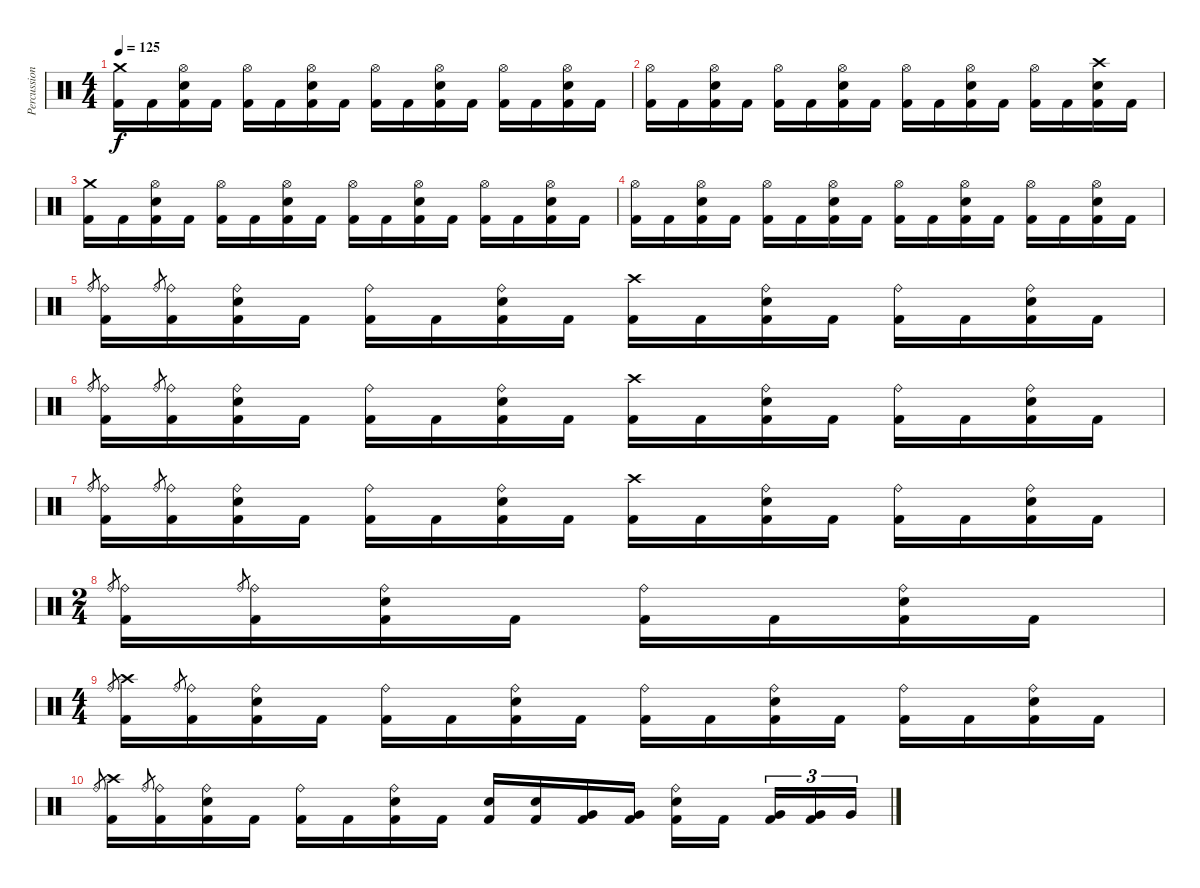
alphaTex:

\track ("Percussion" "Percussion") {instrument percussion}
\staff {score}
\articulation defaults
\ts (4 4)
\tempo 125
\clef neutral
\ks c
("Crash medium (hit)" "Kick (hit) 2").16{dy f} "Kick (hit) 2".16 ("Hi-Hat (open)" "Snare (hit) 2" "Kick (hit) 2").16 "Kick (hit) 2".16 ("Hi-Hat (open)" "Kick (hit) 2").16 "Kick (hit) 2".16 ("Hi-Hat (open)" "Snare (hit) 2" "Kick (hit) 2").16 "Kick (hit) 2".16 ("Hi-Hat (open)" "Kick (hit) 2").16 "Kick (hit) 2".16 ("Hi-Hat (open)" "Snare (hit) 2" "Kick (hit) 2").16 "Kick (hit) 2".16 ("Hi-Hat (open)" "Kick (hit) 2").16 "Kick (hit) 2".16 ("Hi-Hat (open)" "Snare (hit) 2" "Kick (hit) 2").16 "Kick (hit) 2".16 |
("Hi-Hat (open)" "Kick (hit) 2").16 "Kick (hit) 2".16 ("Hi-Hat (open)" "Snare (hit) 2" "Kick (hit) 2").16 "Kick (hit) 2".16 ("Hi-Hat (open)" "Kick (hit) 2").16 "Kick (hit) 2".16 ("Hi-Hat (open)" "Snare (hit) 2" "Kick (hit) 2").16 "Kick (hit) 2".16 ("Hi-Hat (open)" "Kick (hit) 2").16 "Kick (hit) 2".16 ("Hi-Hat (open)" "Snare (hit) 2" "Kick (hit) 2").16 "Kick (hit) 2".16 ("Hi-Hat (open)" "Kick (hit) 2").16 "Kick (hit) 2".16 ("Crash high (hit)" "Snare (hit) 2" "Kick (hit) 2").16 "Kick (hit) 2".16 |
("Crash medium (hit)" "Kick (hit) 2").16 "Kick (hit) 2".16 ("Hi-Hat (open)" "Snare (hit) 2" "Kick (hit) 2").16 "Kick (hit) 2".16 ("Hi-Hat (open)" "Kick (hit) 2").16 "Kick (hit) 2".16 ("Hi-Hat (open)" "Snare (hit) 2" "Kick (hit) 2").16 "Kick (hit) 2".16 ("Hi-Hat (open)" "Kick (hit) 2").16 "Kick (hit) 2".16 ("Hi-Hat (open)" "Snare (hit) 2" "Kick (hit) 2").16 "Kick (hit) 2".16 ("Hi-Hat (open)" "Kick (hit) 2").16 "Kick (hit) 2".16 ("Hi-Hat (open)" "Snare (hit) 2" "Kick (hit) 2").16 "Kick (hit) 2".16 |
("Hi-Hat (open)" "Kick (hit) 2").16 "Kick (hit) 2".16 ("Hi-Hat (open)" "Snare (hit) 2" "Kick (hit) 2").16 "Kick (hit) 2".16 ("Hi-Hat (open)" "Kick (hit) 2").16 "Kick (hit) 2".16 ("Hi-Hat (open)" "Snare (hit) 2" "Kick (hit) 2").16 "Kick (hit) 2".16 ("Hi-Hat (open)" "Kick (hit) 2").16 "Kick (hit) 2".16 ("Hi-Hat (open)" "Snare (hit) 2" "Kick (hit) 2").16 "Kick (hit) 2".16 ("Hi-Hat (open)" "Kick (hit) 2").16 "Kick (hit) 2".16 ("Hi-Hat (open)" "Snare (hit) 2" "Kick (hit) 2").16 "Kick (hit) 2".16 |
"Ride (bell)".8{gr} ("Ride (bell)" "Kick (hit) 2").16 "Ride (bell)".8{gr} ("Ride (bell)" "Kick (hit) 2").16 ("Ride (bell)" "Snare (hit) 2" "Kick (hit) 2").16 "Kick (hit) 2".16 ("Ride (bell)" "Kick (hit) 2").16 "Kick (hit) 2".16 ("Ride (bell)" "Snare (hit) 2" "Kick (hit) 2").16 "Kick (hit) 2".16 ("Crash high (hit)" "Kick (hit) 2").16 "Kick (hit) 2".16 ("Ride (bell)" "Snare (hit) 2" "Kick (hit) 2").16 "Kick (hit) 2".16 ("Ride (bell)" "Kick (hit) 2").16 "Kick (hit) 2".16 ("Ride (bell)" "Snare (hit) 2" "Kick (hit) 2").16 "Kick (hit) 2".16 |
"Ride (bell)".8{gr} ("Ride (bell)" "Kick (hit) 2").16 "Ride (bell)".8{gr} ("Ride (bell)" "Kick (hit) 2").16 ("Ride (bell)" "Snare (hit) 2" "Kick (hit) 2").16 "Kick (hit) 2".16 ("Ride (bell)" "Kick (hit) 2").16 "Kick (hit) 2".16 ("Ride (bell)" "Snare (hit) 2" "Kick (hit) 2").16 "Kick (hit) 2".16 ("Crash high (hit)" "Kick (hit) 2").16 "Kick (hit) 2".16 ("Ride (bell)" "Snare (hit) 2" "Kick (hit) 2").16 "Kick (hit) 2".16 ("Ride (bell)" "Kick (hit) 2").16 "Kick (hit) 2".16 ("Ride (bell)" "Snare (hit) 2" "Kick (hit) 2").16 "Kick (hit) 2".16 |
"Ride (bell)".8{gr} ("Ride (bell)" "Kick (hit) 2").16 "Ride (bell)".8{gr} ("Ride (bell)" "Kick (hit) 2").16 ("Ride (bell)" "Snare (hit) 2" "Kick (hit) 2").16 "Kick (hit) 2".16 ("Ride (bell)" "Kick (hit) 2").16 "Kick (hit) 2".16 ("Ride (bell)" "Snare (hit) 2" "Kick (hit) 2").16 "Kick (hit) 2".16 ("Crash high (hit)" "Kick (hit) 2").16 "Kick (hit) 2".16 ("Ride (bell)" "Snare (hit) 2" "Kick (hit) 2").16 "Kick (hit) 2".16 ("Ride (bell)" "Kick (hit) 2").16 "Kick (hit) 2".16 ("Ride (bell)" "Snare (hit) 2" "Kick (hit) 2").16 "Kick (hit) 2".16 |
\ts (2 4)
"Ride (bell)".8{gr} ("Ride (bell)" "Kick (hit) 2").16 "Ride (bell)".8{gr} ("Ride (bell)" "Kick (hit) 2").16 ("Ride (bell)" "Snare (hit) 2" "Kick (hit) 2").16 "Kick (hit) 2".16 ("Ride (bell)" "Kick (hit) 2").16 "Kick (hit) 2".16 ("Ride (bell)" "Snare (hit) 2" "Kick (hit) 2").16 "Kick (hit) 2".16 |
\ts (4 4)
"Ride (bell)".8{gr} ("Crash high (hit)" "Kick (hit) 2").16 "Ride (bell)".8{gr} ("Ride (bell)" "Kick (hit) 2").16 ("Ride (bell)" "Snare (hit) 2" "Kick (hit) 2").16 "Kick (hit) 2".16 ("Ride (bell)" "Kick (hit) 2").16 "Kick (hit) 2".16 ("Ride (bell)" "Snare (hit) 2" "Kick (hit) 2").16 "Kick (hit) 2".16 ("Ride (bell)" "Kick (hit) 2").16 "Kick (hit) 2".16 ("Ride (bell)" "Snare (hit) 2" "Kick (hit) 2").16 "Kick (hit) 2".16 ("Ride (bell)" "Kick (hit) 2").16 "Kick (hit) 2".16 ("Ride (bell)" "Snare (hit) 2" "Kick (hit) 2").16 "Kick (hit) 2".16 |
"Ride (bell)".8{gr} ("Crash high (hit)" "Kick (hit) 2").16 "Ride (bell)".8{gr} ("Ride (bell)" "Kick (hit) 2").16 ("Ride (bell)" "Snare (hit) 2" "Kick (hit) 2").16 "Kick (hit) 2".16 ("Ride (bell)" "Kick (hit) 2").16 "Kick (hit) 2".16 ("Ride (bell)" "Snare (hit) 2" "Kick (hit) 2").16 "Kick (hit) 2".16 ("Snare (hit) 2" "Kick (hit) 2").16 ("Snare (hit) 2" "Kick (hit) 2").16 ("Very Low Tom (hit)" "Kick (hit) 2").16 ("Very Low Tom (hit)" "Kick (hit) 2").16 ("Ride (bell)" "Snare (hit) 2" "Kick (hit) 2").16 "Kick (hit) 2".16 ("Very Low Tom (hit)" "Kick (hit) 2").16{tu (3 2)} ("Very Low Tom (hit)" "Kick (hit) 2").16{tu (3 2)} "Very Low Tom (hit)".16{tu (3 2)}
